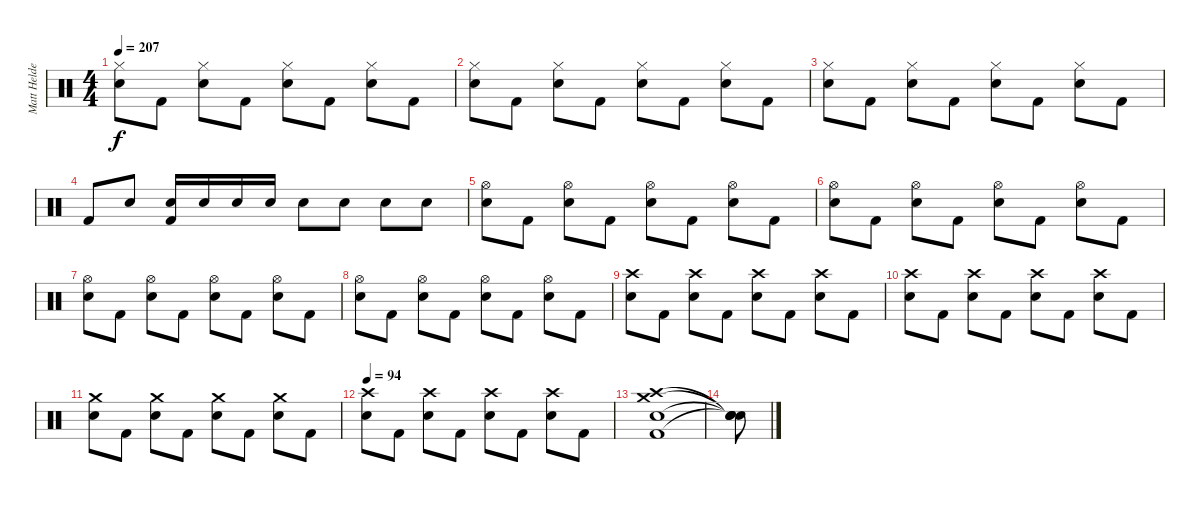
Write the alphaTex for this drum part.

\track ("Matt Helders - Drums" "Matt Helde") {instrument percussion}
\staff {score}
\articulation defaults
\ts (4 4)
\tempo 207
\clef neutral
\ks c
("Hi-Hat (closed)" "Electric Snare (hit)").8{dy f} "Kick (hit) 2".8 ("Hi-Hat (closed)" "Electric Snare (hit)").8 "Kick (hit) 2".8 ("Hi-Hat (closed)" "Electric Snare (hit)").8 "Kick (hit) 2".8 ("Hi-Hat (closed)" "Electric Snare (hit)").8 "Kick (hit) 2".8 |
("Hi-Hat (closed)" "Electric Snare (hit)").8 "Kick (hit) 2".8 ("Hi-Hat (closed)" "Electric Snare (hit)").8 "Kick (hit) 2".8 ("Hi-Hat (closed)" "Electric Snare (hit)").8 "Kick (hit) 2".8 ("Hi-Hat (closed)" "Electric Snare (hit)").8 "Kick (hit) 2".8 |
("Hi-Hat (closed)" "Electric Snare (hit)").8 "Kick (hit) 2".8 ("Hi-Hat (closed)" "Electric Snare (hit)").8 "Kick (hit) 2".8 ("Hi-Hat (closed)" "Electric Snare (hit)").8 "Kick (hit) 2".8 ("Hi-Hat (closed)" "Electric Snare (hit)").8 "Kick (hit) 2".8 |
"Kick (hit) 2".8 "Electric Snare (hit)".8 ("Electric Snare (hit)" "Kick (hit) 2").16 "Electric Snare (hit)".16 "Electric Snare (hit)".16 "Electric Snare (hit)".16 "Electric Snare (hit)".8 "Electric Snare (hit)".8 "Electric Snare (hit)".8 "Electric Snare (hit)".8 |
("Hi-Hat (open)" "Electric Snare (hit)").8 "Kick (hit) 2".8 ("Hi-Hat (open)" "Electric Snare (hit)").8 "Kick (hit) 2".8 ("Hi-Hat (open)" "Electric Snare (hit)").8 "Kick (hit) 2".8 ("Hi-Hat (open)" "Electric Snare (hit)").8 "Kick (hit) 2".8 |
("Hi-Hat (open)" "Electric Snare (hit)").8 "Kick (hit) 2".8 ("Hi-Hat (open)" "Electric Snare (hit)").8 "Kick (hit) 2".8 ("Hi-Hat (open)" "Electric Snare (hit)").8 "Kick (hit) 2".8 ("Hi-Hat (open)" "Electric Snare (hit)").8 "Kick (hit) 2".8 |
("Hi-Hat (open)" "Electric Snare (hit)").8 "Kick (hit) 2".8 ("Hi-Hat (open)" "Electric Snare (hit)").8 "Kick (hit) 2".8 ("Hi-Hat (open)" "Electric Snare (hit)").8 "Kick (hit) 2".8 ("Hi-Hat (open)" "Electric Snare (hit)").8 "Kick (hit) 2".8 |
("Hi-Hat (open)" "Electric Snare (hit)").8 "Kick (hit) 2".8 ("Hi-Hat (open)" "Electric Snare (hit)").8 "Kick (hit) 2".8 ("Hi-Hat (open)" "Electric Snare (hit)").8 "Kick (hit) 2".8 ("Hi-Hat (open)" "Electric Snare (hit)").8 "Kick (hit) 2".8 |
("Crash high (hit)" "Electric Snare (hit)").8 "Kick (hit) 2".8 ("Crash high (hit)" "Electric Snare (hit)").8 "Kick (hit) 2".8 ("Crash high (hit)" "Electric Snare (hit)").8 "Kick (hit) 2".8 ("Crash high (hit)" "Electric Snare (hit)").8 "Kick (hit) 2".8 |
("Crash high (hit)" "Electric Snare (hit)").8 "Kick (hit) 2".8 ("Crash high (hit)" "Electric Snare (hit)").8 "Kick (hit) 2".8 ("Crash high (hit)" "Electric Snare (hit)").8 "Kick (hit) 2".8 ("Crash high (hit)" "Electric Snare (hit)").8 "Kick (hit) 2".8 |
("Crash medium (hit)" "Electric Snare (hit)").8 "Kick (hit) 2".8 ("Crash medium (hit)" "Electric Snare (hit)").8 "Kick (hit) 2".8 ("Crash medium (hit)" "Electric Snare (hit)").8 "Kick (hit) 2".8 ("Crash medium (hit)" "Electric Snare (hit)").8 "Kick (hit) 2".8 |
\tempo 94
("Crash high (hit)" "Electric Snare (hit)").8 "Kick (hit) 2".8 ("Crash high (hit)" "Electric Snare (hit)").8 "Kick (hit) 2".8 ("Crash high (hit)" "Electric Snare (hit)").8 "Kick (hit) 2".8 ("Crash high (hit)" "Electric Snare (hit)").8 "Kick (hit) 2".8 |
("Crash high (hit)" "Crash medium (hit)" "Electric Snare (hit)" "Kick (hit) 2").1 |
("Snare (hit)"{t} "Snare (hit)"{t} "Snare (hit)"{t} "Snare (hit)"{t}).8
